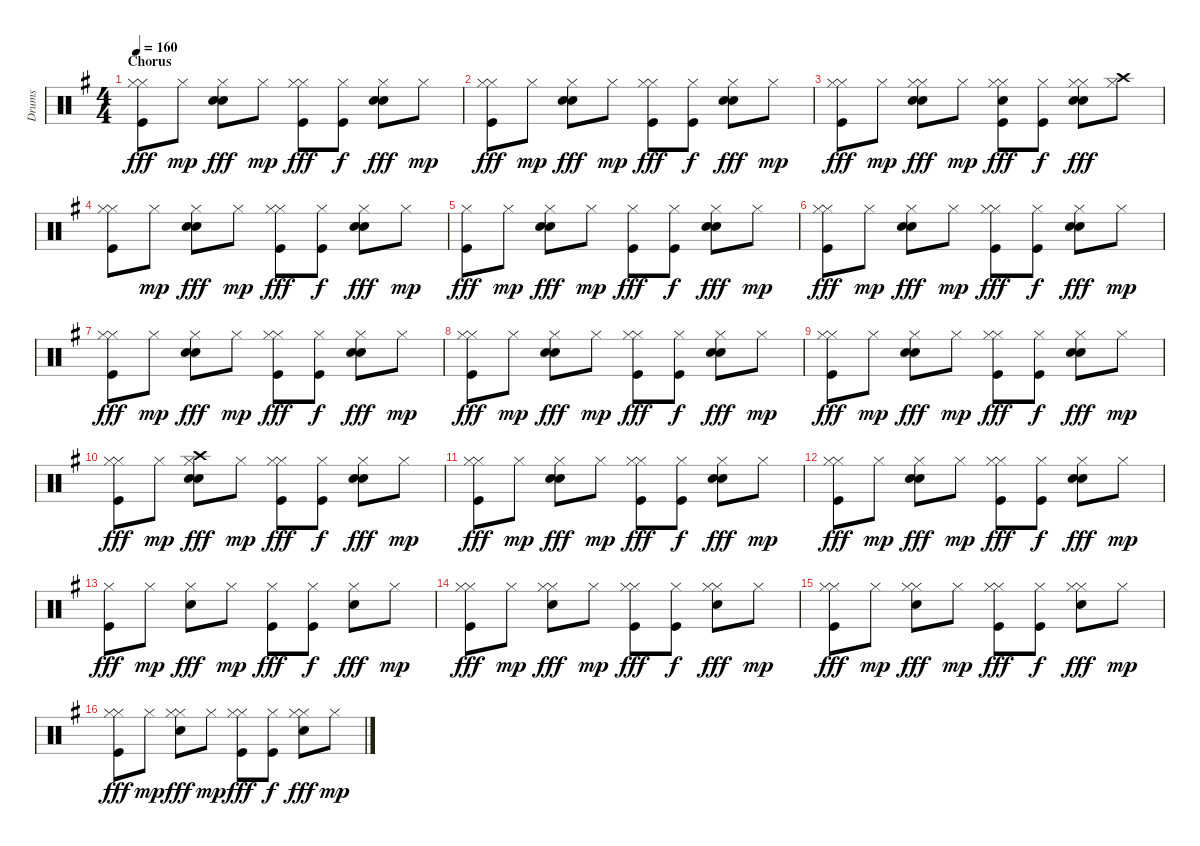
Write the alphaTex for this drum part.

\track ("Drums" "Drums") {instrument percussion}
\staff {score}
\articulation defaults
\ts (4 4)
\section ("" "Chorus")
\tempo 160
\clef neutral
\ks g
("Hi-Hat (closed)" "Kick (hit)" "Hi-Hat (closed)").8{dy fff} "Hi-Hat (closed)".8{dy mp} ("Snare (hit) 2" "Hi-Hat (closed)" "Electric Snare (hit)").8{dy fff} "Hi-Hat (closed)".8{dy mp} ("Hi-Hat (closed)" "Kick (hit)" "Hi-Hat (closed)").8{dy fff} ("Hi-Hat (closed)" "Kick (hit)").8{dy f} ("Snare (hit) 2" "Hi-Hat (closed)" "Electric Snare (hit)").8{dy fff} "Hi-Hat (closed)".8{dy mp} |
("Hi-Hat (closed)" "Kick (hit)" "Hi-Hat (closed)").8{dy fff} "Hi-Hat (closed)".8{dy mp} ("Snare (hit) 2" "Hi-Hat (closed)" "Electric Snare (hit)").8{dy fff} "Hi-Hat (closed)".8{dy mp} ("Hi-Hat (closed)" "Kick (hit)" "Hi-Hat (closed)").8{dy fff} ("Hi-Hat (closed)" "Kick (hit)").8{dy f} ("Snare (hit) 2" "Hi-Hat (closed)" "Electric Snare (hit)").8{dy fff} "Hi-Hat (closed)".8{dy mp} |
("Hi-Hat (closed)" "Kick (hit)" "Hi-Hat (closed)").8{dy fff} "Hi-Hat (closed)".8{dy mp} ("Snare (hit) 2" "Hi-Hat (closed)" "Hi-Hat (closed)" "Electric Snare (hit)").8{dy fff} "Hi-Hat (closed)".8{dy mp} ("Hi-Hat (closed)" "Kick (hit)" "Hi-Hat (closed)" "Electric Snare (hit)").8{dy fff} ("Hi-Hat (closed)" "Kick (hit)").8{dy f} ("Snare (hit) 2" "Hi-Hat (closed)" "Hi-Hat (closed)" "Electric Snare (hit)").8{dy fff} ("Hi-Hat (closed)" "Crash high (hit)").8 |
("Hi-Hat (closed)" "Kick (hit)" "Hi-Hat (closed)").8 "Hi-Hat (closed)".8{dy mp} ("Snare (hit) 2" "Hi-Hat (closed)" "Electric Snare (hit)").8{dy fff} "Hi-Hat (closed)".8{dy mp} ("Hi-Hat (closed)" "Kick (hit)" "Hi-Hat (closed)").8{dy fff} ("Hi-Hat (closed)" "Kick (hit)").8{dy f} ("Snare (hit) 2" "Hi-Hat (closed)" "Electric Snare (hit)").8{dy fff} "Hi-Hat (closed)".8{dy mp} |
("Hi-Hat (closed)" "Kick (hit)").8{dy fff} "Hi-Hat (closed)".8{dy mp} ("Snare (hit) 2" "Hi-Hat (closed)" "Electric Snare (hit)").8{dy fff} "Hi-Hat (closed)".8{dy mp} ("Hi-Hat (closed)" "Kick (hit)").8{dy fff} ("Hi-Hat (closed)" "Kick (hit)").8{dy f} ("Snare (hit) 2" "Hi-Hat (closed)" "Electric Snare (hit)").8{dy fff} "Hi-Hat (closed)".8{dy mp} |
("Hi-Hat (closed)" "Kick (hit)" "Hi-Hat (closed)").8{dy fff} "Hi-Hat (closed)".8{dy mp} ("Snare (hit) 2" "Hi-Hat (closed)" "Electric Snare (hit)").8{dy fff} "Hi-Hat (closed)".8{dy mp} ("Hi-Hat (closed)" "Kick (hit)" "Hi-Hat (closed)").8{dy fff} ("Hi-Hat (closed)" "Kick (hit)").8{dy f} ("Snare (hit) 2" "Hi-Hat (closed)" "Electric Snare (hit)").8{dy fff} "Hi-Hat (closed)".8{dy mp} |
("Hi-Hat (closed)" "Kick (hit)" "Hi-Hat (closed)").8{dy fff} "Hi-Hat (closed)".8{dy mp} ("Snare (hit) 2" "Hi-Hat (closed)" "Electric Snare (hit)").8{dy fff} "Hi-Hat (closed)".8{dy mp} ("Hi-Hat (closed)" "Kick (hit)" "Hi-Hat (closed)").8{dy fff} ("Hi-Hat (closed)" "Kick (hit)").8{dy f} ("Snare (hit) 2" "Hi-Hat (closed)" "Electric Snare (hit)").8{dy fff} "Hi-Hat (closed)".8{dy mp} |
("Hi-Hat (closed)" "Kick (hit)" "Hi-Hat (closed)").8{dy fff} "Hi-Hat (closed)".8{dy mp} ("Snare (hit) 2" "Hi-Hat (closed)" "Electric Snare (hit)").8{dy fff} "Hi-Hat (closed)".8{dy mp} ("Hi-Hat (closed)" "Kick (hit)" "Hi-Hat (closed)").8{dy fff} ("Hi-Hat (closed)" "Kick (hit)").8{dy f} ("Snare (hit) 2" "Hi-Hat (closed)" "Electric Snare (hit)").8{dy fff} "Hi-Hat (closed)".8{dy mp} |
("Hi-Hat (closed)" "Kick (hit)" "Hi-Hat (closed)").8{dy fff} "Hi-Hat (closed)".8{dy mp} ("Snare (hit) 2" "Hi-Hat (closed)" "Electric Snare (hit)").8{dy fff} "Hi-Hat (closed)".8{dy mp} ("Hi-Hat (closed)" "Kick (hit)" "Hi-Hat (closed)").8{dy fff} ("Hi-Hat (closed)" "Kick (hit)").8{dy f} ("Snare (hit) 2" "Hi-Hat (closed)" "Electric Snare (hit)").8{dy fff} "Hi-Hat (closed)".8{dy mp} |
("Hi-Hat (closed)" "Kick (hit)" "Hi-Hat (closed)").8{dy fff} "Hi-Hat (closed)".8{dy mp} ("Snare (hit) 2" "Hi-Hat (closed)" "Electric Snare (hit)" "Crash high (hit)").8{dy fff} "Hi-Hat (closed)".8{dy mp} ("Hi-Hat (closed)" "Kick (hit)" "Hi-Hat (closed)").8{dy fff} ("Hi-Hat (closed)" "Kick (hit)").8{dy f} ("Snare (hit) 2" "Hi-Hat (closed)" "Electric Snare (hit)").8{dy fff} "Hi-Hat (closed)".8{dy mp} |
("Hi-Hat (closed)" "Kick (hit)" "Hi-Hat (closed)").8{dy fff} "Hi-Hat (closed)".8{dy mp} ("Snare (hit) 2" "Hi-Hat (closed)" "Electric Snare (hit)").8{dy fff} "Hi-Hat (closed)".8{dy mp} ("Hi-Hat (closed)" "Kick (hit)" "Hi-Hat (closed)").8{dy fff} ("Hi-Hat (closed)" "Kick (hit)").8{dy f} ("Snare (hit) 2" "Hi-Hat (closed)" "Electric Snare (hit)").8{dy fff} "Hi-Hat (closed)".8{dy mp} |
("Hi-Hat (closed)" "Kick (hit)" "Hi-Hat (closed)").8{dy fff} "Hi-Hat (closed)".8{dy mp} ("Snare (hit) 2" "Hi-Hat (closed)" "Electric Snare (hit)").8{dy fff} "Hi-Hat (closed)".8{dy mp} ("Hi-Hat (closed)" "Kick (hit)" "Hi-Hat (closed)").8{dy fff} ("Hi-Hat (closed)" "Kick (hit)").8{dy f} ("Snare (hit) 2" "Hi-Hat (closed)" "Electric Snare (hit)").8{dy fff} "Hi-Hat (closed)".8{dy mp} |
("Hi-Hat (closed)" "Kick (hit)").8{dy fff} "Hi-Hat (closed)".8{dy mp} ("Snare (hit) 2" "Hi-Hat (closed)").8{dy fff} "Hi-Hat (closed)".8{dy mp} ("Hi-Hat (closed)" "Kick (hit)").8{dy fff} ("Hi-Hat (closed)" "Kick (hit)").8{dy f} ("Snare (hit) 2" "Hi-Hat (closed)").8{dy fff} "Hi-Hat (closed)".8{dy mp} |
("Hi-Hat (closed)" "Kick (hit)" "Hi-Hat (closed)").8{dy fff} "Hi-Hat (closed)".8{dy mp} ("Snare (hit) 2" "Hi-Hat (closed)" "Hi-Hat (closed)").8{dy fff} "Hi-Hat (closed)".8{dy mp} ("Hi-Hat (closed)" "Kick (hit)" "Hi-Hat (closed)").8{dy fff} ("Hi-Hat (closed)" "Kick (hit)").8{dy f} ("Snare (hit) 2" "Hi-Hat (closed)" "Hi-Hat (closed)").8{dy fff} "Hi-Hat (closed)".8{dy mp} |
("Hi-Hat (closed)" "Kick (hit)" "Hi-Hat (closed)").8{dy fff} "Hi-Hat (closed)".8{dy mp} ("Snare (hit) 2" "Hi-Hat (closed)" "Hi-Hat (closed)").8{dy fff} "Hi-Hat (closed)".8{dy mp} ("Hi-Hat (closed)" "Kick (hit)" "Hi-Hat (closed)").8{dy fff} ("Hi-Hat (closed)" "Kick (hit)").8{dy f} ("Snare (hit) 2" "Hi-Hat (closed)" "Hi-Hat (closed)").8{dy fff} "Hi-Hat (closed)".8{dy mp} |
("Hi-Hat (closed)" "Kick (hit)" "Hi-Hat (closed)").8{dy fff} "Hi-Hat (closed)".8{dy mp} ("Snare (hit) 2" "Hi-Hat (closed)" "Hi-Hat (closed)").8{dy fff} "Hi-Hat (closed)".8{dy mp} ("Hi-Hat (closed)" "Kick (hit)" "Hi-Hat (closed)").8{dy fff} ("Hi-Hat (closed)" "Kick (hit)").8{dy f} ("Snare (hit) 2" "Hi-Hat (closed)" "Hi-Hat (closed)").8{dy fff} "Hi-Hat (closed)".8{dy mp}
